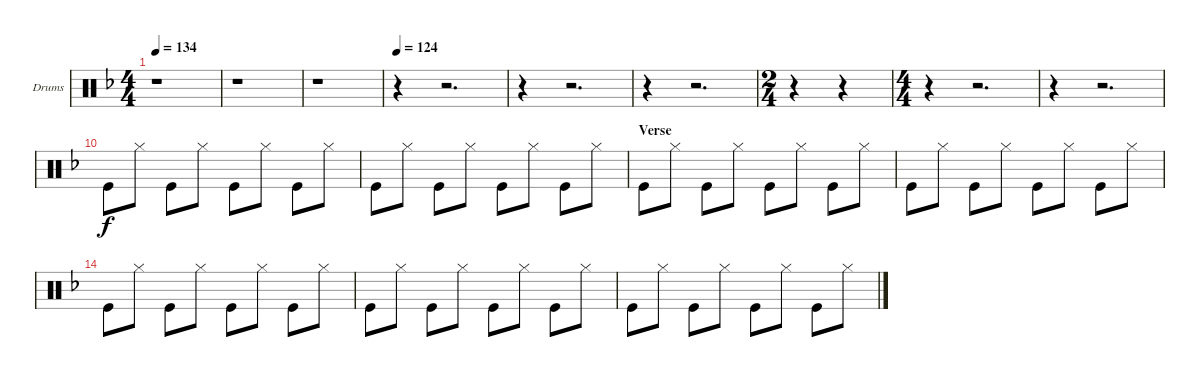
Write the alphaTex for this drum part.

\bracketExtendMode nobrackets
\firstSystemTrackNameOrientation horizontal
\otherSystemsTrackNameOrientation horizontal
\defaultBarNumberDisplay FirstOfSystem
\track ("Drumkit" "Drums") {instrument percussion}
\staff {score}
\articulation defaults
\ts (4 4)
\tempo 134
\clef neutral
\ks f
r.1{dy f} |
r.1 |
r.1 |
\tempo 124
r.4 r.2{d} |
r.4 r.2{d} |
r.4 r.2{d} |
\ts (2 4)
r.4 r.4 |
\ts (4 4)
r.4 r.2{d} |
r.4 r.2{d} |
"Kick (hit)".8 "Hi-Hat (closed)".8 "Kick (hit)".8 "Hi-Hat (closed)".8 "Kick (hit)".8 "Hi-Hat (closed)".8 "Kick (hit)".8 "Hi-Hat (closed)".8 |
"Kick (hit)".8 "Hi-Hat (closed)".8 "Kick (hit)".8 "Hi-Hat (closed)".8 "Kick (hit)".8 "Hi-Hat (closed)".8 "Kick (hit)".8 "Hi-Hat (closed)".8 |
\section ("" "Verse")
"Kick (hit)".8 "Hi-Hat (closed)".8 "Kick (hit)".8 "Hi-Hat (closed)".8 "Kick (hit)".8 "Hi-Hat (closed)".8 "Kick (hit)".8 "Hi-Hat (closed)".8 |
"Kick (hit)".8 "Hi-Hat (closed)".8 "Kick (hit)".8 "Hi-Hat (closed)".8 "Kick (hit)".8 "Hi-Hat (closed)".8 "Kick (hit)".8 "Hi-Hat (closed)".8 |
"Kick (hit)".8 "Hi-Hat (closed)".8 "Kick (hit)".8 "Hi-Hat (closed)".8 "Kick (hit)".8 "Hi-Hat (closed)".8 "Kick (hit)".8 "Hi-Hat (closed)".8 |
"Kick (hit)".8 "Hi-Hat (closed)".8 "Kick (hit)".8 "Hi-Hat (closed)".8 "Kick (hit)".8 "Hi-Hat (closed)".8 "Kick (hit)".8 "Hi-Hat (closed)".8 |
"Kick (hit)".8 "Hi-Hat (closed)".8 "Kick (hit)".8 "Hi-Hat (closed)".8 "Kick (hit)".8 "Hi-Hat (closed)".8 "Kick (hit)".8 "Hi-Hat (closed)".8
